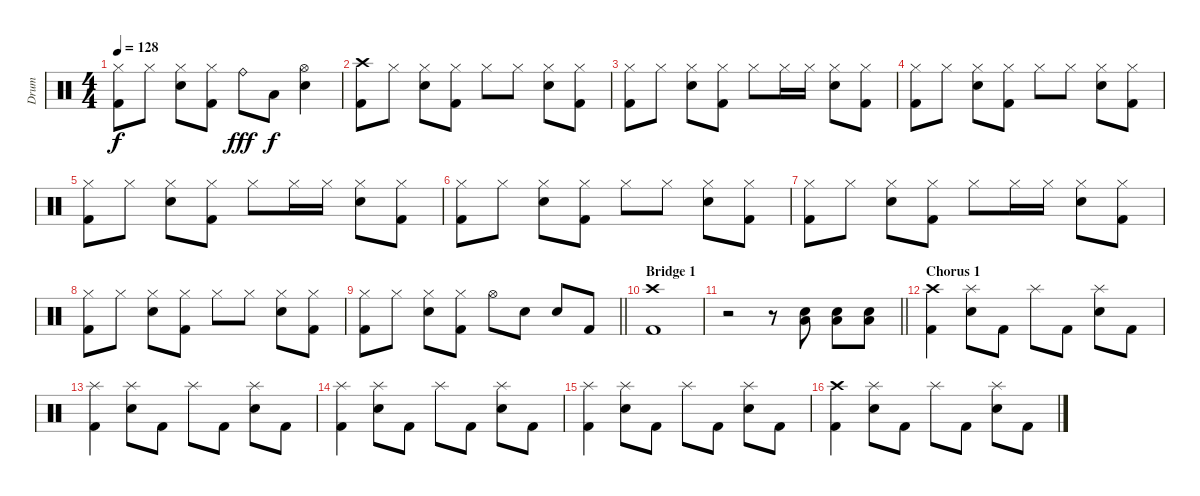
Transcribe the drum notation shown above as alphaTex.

\track ("Drum" "Drum") {instrument percussion}
\staff {score}
\articulation defaults
\ts (4 4)
\tempo 128
\clef neutral
\ks c
("Hi-Hat (closed)" "Kick (hit) 2").8{dy f} "Hi-Hat (closed)".8 ("Hi-Hat (closed)" "Electric Snare (hit)").8 ("Hi-Hat (closed)" "Kick (hit) 2").8 "Ride (bell)".8{dy fff} "Low Tom (hit)".8{dy f} ("Hi-Hat (open)" "Electric Snare (hit)").4 |
("Crash high (hit)" "Kick (hit) 2").8 "Hi-Hat (closed)".8 ("Hi-Hat (closed)" "Electric Snare (hit)").8 ("Hi-Hat (closed)" "Kick (hit) 2").8 "Hi-Hat (closed)".8 "Hi-Hat (closed)".8 ("Hi-Hat (closed)" "Electric Snare (hit)").8 ("Hi-Hat (closed)" "Kick (hit) 2").8 |
("Hi-Hat (closed)" "Kick (hit) 2").8 "Hi-Hat (closed)".8 ("Hi-Hat (closed)" "Electric Snare (hit)").8 ("Hi-Hat (closed)" "Kick (hit) 2").8 "Hi-Hat (closed)".8 "Hi-Hat (closed)".16 "Hi-Hat (closed)".16 ("Hi-Hat (closed)" "Electric Snare (hit)").8 ("Hi-Hat (closed)" "Kick (hit) 2").8 |
("Hi-Hat (closed)" "Kick (hit) 2").8 "Hi-Hat (closed)".8 ("Hi-Hat (closed)" "Electric Snare (hit)").8 ("Hi-Hat (closed)" "Kick (hit) 2").8 "Hi-Hat (closed)".8 "Hi-Hat (closed)".8 ("Hi-Hat (closed)" "Electric Snare (hit)").8 ("Hi-Hat (closed)" "Kick (hit) 2").8 |
("Hi-Hat (closed)" "Kick (hit) 2").8 "Hi-Hat (closed)".8 ("Hi-Hat (closed)" "Electric Snare (hit)").8 ("Hi-Hat (closed)" "Kick (hit) 2").8 "Hi-Hat (closed)".8 "Hi-Hat (closed)".16 "Hi-Hat (closed)".16 ("Hi-Hat (closed)" "Electric Snare (hit)").8 ("Hi-Hat (closed)" "Kick (hit) 2").8 |
("Hi-Hat (closed)" "Kick (hit) 2").8 "Hi-Hat (closed)".8 ("Hi-Hat (closed)" "Electric Snare (hit)").8 ("Hi-Hat (closed)" "Kick (hit) 2").8 "Hi-Hat (closed)".8 "Hi-Hat (closed)".8 ("Hi-Hat (closed)" "Electric Snare (hit)").8 ("Hi-Hat (closed)" "Kick (hit) 2").8 |
("Hi-Hat (closed)" "Kick (hit) 2").8 "Hi-Hat (closed)".8 ("Hi-Hat (closed)" "Electric Snare (hit)").8 ("Hi-Hat (closed)" "Kick (hit) 2").8 "Hi-Hat (closed)".8 "Hi-Hat (closed)".16 "Hi-Hat (closed)".16 ("Hi-Hat (closed)" "Electric Snare (hit)").8 ("Hi-Hat (closed)" "Kick (hit) 2").8 |
("Hi-Hat (closed)" "Kick (hit) 2").8 "Hi-Hat (closed)".8 ("Hi-Hat (closed)" "Electric Snare (hit)").8 ("Hi-Hat (closed)" "Kick (hit) 2").8 "Hi-Hat (closed)".8 "Hi-Hat (closed)".8 ("Hi-Hat (closed)" "Electric Snare (hit)").8 ("Hi-Hat (closed)" "Kick (hit) 2").8 |
\barLineRight lightlight
("Hi-Hat (closed)" "Kick (hit) 2").8 "Hi-Hat (closed)".8 ("Hi-Hat (closed)" "Electric Snare (hit)").8 ("Hi-Hat (closed)" "Kick (hit) 2").8 "Hi-Hat (open)".8 "Electric Snare (hit)".8 "Electric Snare (hit)".8 "Kick (hit) 2".8 |
\section ("" "Bridge 1")
("Crash high (hit)" "Kick (hit) 2").1 |
\barLineRight lightlight
r.2 r.8 ("Electric Snare (hit)" "Low Floor Tom (hit)").8 ("Electric Snare (hit)" "Low Floor Tom (hit)").8 ("Electric Snare (hit)" "Low Floor Tom (hit)").8 |
\section ("" "Chorus 1")
("Crash high (hit)" "Kick (hit) 2").4 ("Splash (hit)" "Electric Snare (hit)").8 "Kick (hit) 2".8 "Splash (hit)".8 "Kick (hit) 2".8 ("Splash (hit)" "Electric Snare (hit)").8 "Kick (hit) 2".8 |
("Splash (hit)" "Kick (hit) 2").4 ("Splash (hit)" "Electric Snare (hit)").8 "Kick (hit) 2".8 "Splash (hit)".8 "Kick (hit) 2".8 ("Splash (hit)" "Electric Snare (hit)").8 "Kick (hit) 2".8 |
("Splash (hit)" "Kick (hit) 2").4 ("Splash (hit)" "Electric Snare (hit)").8 "Kick (hit) 2".8 "Splash (hit)".8 "Kick (hit) 2".8 ("Splash (hit)" "Electric Snare (hit)").8 "Kick (hit) 2".8 |
("Splash (hit)" "Kick (hit) 2").4 ("Splash (hit)" "Electric Snare (hit)").8 "Kick (hit) 2".8 "Splash (hit)".8 "Kick (hit) 2".8 ("Splash (hit)" "Electric Snare (hit)").8 "Kick (hit) 2".8 |
("Crash high (hit)" "Kick (hit) 2").4 ("Splash (hit)" "Electric Snare (hit)").8 "Kick (hit) 2".8 "Splash (hit)".8 "Kick (hit) 2".8 ("Splash (hit)" "Electric Snare (hit)").8 "Kick (hit) 2".8
